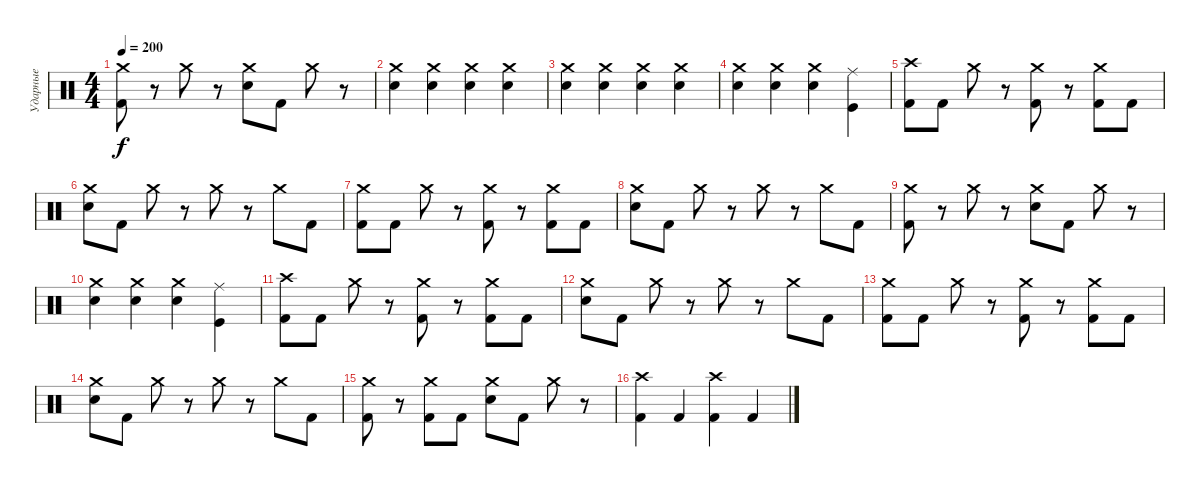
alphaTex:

\track ("Ударные" "Ударные") {instrument percussion}
\staff {score}
\articulation defaults
\ts (4 4)
\tempo 200
\clef neutral
\ks c
("Crash medium (hit)" "Kick (hit) 2").8{dy f} r.8 "Crash medium (hit)".8 r.8 ("Crash medium (hit)" "Electric Snare (hit)").8 "Kick (hit) 2".8 "Crash medium (hit)".8 r.8 |
("Crash medium (hit)" "Electric Snare (hit)").4 ("Crash medium (hit)" "Electric Snare (hit)").4 ("Crash medium (hit)" "Electric Snare (hit)").4 ("Crash medium (hit)" "Electric Snare (hit)").4 |
("Crash medium (hit)" "Electric Snare (hit)").4 ("Crash medium (hit)" "Electric Snare (hit)").4 ("Crash medium (hit)" "Electric Snare (hit)").4 ("Crash medium (hit)" "Electric Snare (hit)").4 |
("Crash medium (hit)" "Electric Snare (hit)").4 ("Crash medium (hit)" "Electric Snare (hit)").4 ("Crash medium (hit)" "Electric Snare (hit)").4 ("Ride (middle)" "Kick (hit)").4 |
("Crash high (hit)" "Kick (hit) 2").8 "Kick (hit) 2".8 "Crash medium (hit)".8 r.8 ("Crash medium (hit)" "Kick (hit) 2").8 r.8 ("Crash medium (hit)" "Kick (hit) 2").8 "Kick (hit) 2".8 |
("Crash medium (hit)" "Electric Snare (hit)").8 "Kick (hit) 2".8 "Crash medium (hit)".8 r.8 "Crash medium (hit)".8 r.8 "Crash medium (hit)".8 "Kick (hit) 2".8 |
("Crash medium (hit)" "Kick (hit) 2").8 "Kick (hit) 2".8 "Crash medium (hit)".8 r.8 ("Crash medium (hit)" "Kick (hit) 2").8 r.8 ("Crash medium (hit)" "Kick (hit) 2").8 "Kick (hit) 2".8 |
("Crash medium (hit)" "Electric Snare (hit)").8 "Kick (hit) 2".8 "Crash medium (hit)".8 r.8 "Crash medium (hit)".8 r.8 "Crash medium (hit)".8 "Kick (hit) 2".8 |
("Crash medium (hit)" "Kick (hit) 2").8 r.8 "Crash medium (hit)".8 r.8 ("Crash medium (hit)" "Electric Snare (hit)").8 "Kick (hit) 2".8 "Crash medium (hit)".8 r.8 |
("Crash medium (hit)" "Electric Snare (hit)").4 ("Crash medium (hit)" "Electric Snare (hit)").4 ("Crash medium (hit)" "Electric Snare (hit)").4 ("Ride (middle)" "Kick (hit)").4 |
("Crash high (hit)" "Kick (hit) 2").8 "Kick (hit) 2".8 "Crash medium (hit)".8 r.8 ("Crash medium (hit)" "Kick (hit) 2").8 r.8 ("Crash medium (hit)" "Kick (hit) 2").8 "Kick (hit) 2".8 |
("Crash medium (hit)" "Electric Snare (hit)").8 "Kick (hit) 2".8 "Crash medium (hit)".8 r.8 "Crash medium (hit)".8 r.8 "Crash medium (hit)".8 "Kick (hit) 2".8 |
("Crash medium (hit)" "Kick (hit) 2").8 "Kick (hit) 2".8 "Crash medium (hit)".8 r.8 ("Crash medium (hit)" "Kick (hit) 2").8 r.8 ("Crash medium (hit)" "Kick (hit) 2").8 "Kick (hit) 2".8 |
("Crash medium (hit)" "Electric Snare (hit)").8 "Kick (hit) 2".8 "Crash medium (hit)".8 r.8 "Crash medium (hit)".8 r.8 "Crash medium (hit)".8 "Kick (hit) 2".8 |
("Crash medium (hit)" "Kick (hit) 2").8 r.8 ("Crash medium (hit)" "Kick (hit) 2").8 "Kick (hit) 2".8 ("Crash medium (hit)" "Electric Snare (hit)").8 "Kick (hit) 2".8 "Crash medium (hit)".8 r.8 |
("Crash high (hit)" "Kick (hit) 2").4 "Kick (hit) 2".4 ("Crash high (hit)" "Kick (hit) 2").4 "Kick (hit) 2".4
